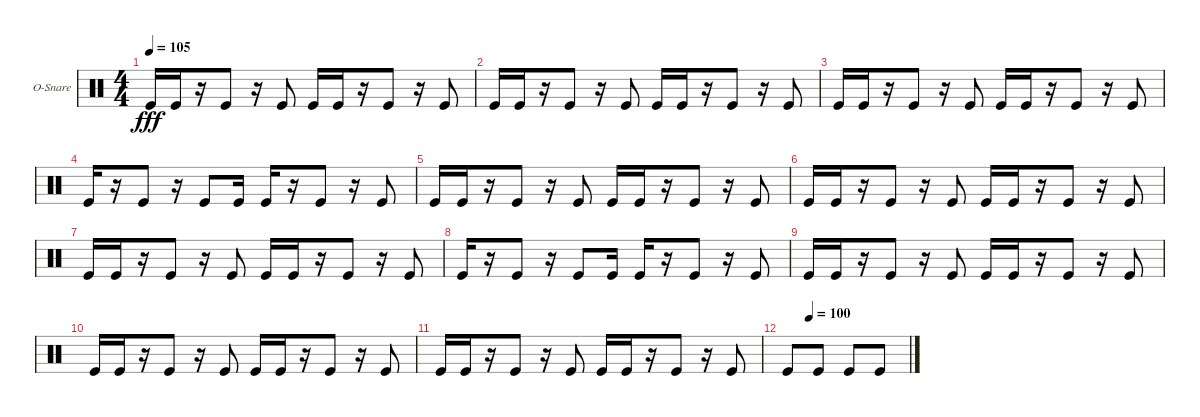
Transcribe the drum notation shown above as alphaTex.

\bracketExtendMode groupsimilarinstruments
\firstSystemTrackNameOrientation horizontal
\otherSystemsTrackNameOrientation horizontal
\track ("Snare" "O-Snare") {instrument percussion}
\staff {score}
\articulation defaults
\ts (4 4)
\tempo 105
\clef neutral
\scale
0.333333
\ks c "Kick (hit)".16{dy fff} "Kick (hit)".16
r.16 "Kick (hit)".8 r.16 "Kick (hit)".8 "Kick (hit)".16 "Kick (hit)".16 r.16 "Kick (hit)".8 r.16 "Kick (hit)".8 |
\scale
0.333333 "Kick (hit)".16 "Kick (hit)".16 r.16 "Kick (hit)".8 r.16 "Kick (hit)".8 "Kick (hit)".16 "Kick (hit)".16 r.16 "Kick (hit)".8 r.16 "Kick (hit)".8 |
\scale
0.333333 "Kick (hit)".16 "Kick (hit)".16 r.16 "Kick (hit)".8 r.16 "Kick (hit)".8 "Kick (hit)".16 "Kick (hit)".16 r.16 "Kick (hit)".8 r.16 "Kick (hit)".8 |
\scale
0.333333 "Kick (hit)".16 r.16 "Kick (hit)".8 r.16 "Kick (hit)".8 "Kick (hit)".16 "Kick (hit)".16 r.16 "Kick (hit)".8 r.16 "Kick (hit)".8 |
\scale
0.333333 "Kick (hit)".16 "Kick (hit)".16 r.16 "Kick (hit)".8 r.16 "Kick (hit)".8 "Kick (hit)".16 "Kick (hit)".16 r.16 "Kick (hit)".8 r.16 "Kick (hit)".8 |
\scale
0.333333 "Kick (hit)".16 "Kick (hit)".16 r.16 "Kick (hit)".8 r.16 "Kick (hit)".8 "Kick (hit)".16 "Kick (hit)".16 r.16 "Kick (hit)".8 r.16 "Kick (hit)".8 |
\scale
0.333333 "Kick (hit)".16 "Kick (hit)".16 r.16 "Kick (hit)".8 r.16 "Kick (hit)".8 "Kick (hit)".16 "Kick (hit)".16 r.16 "Kick (hit)".8 r.16 "Kick (hit)".8 |
\scale
0.333333 "Kick (hit)".16 r.16 "Kick (hit)".8 r.16 "Kick (hit)".8 "Kick (hit)".16 "Kick (hit)".16 r.16 "Kick (hit)".8 r.16 "Kick (hit)".8 |
\scale
0.333333 "Kick (hit)".16 "Kick (hit)".16 r.16 "Kick (hit)".8 r.16 "Kick (hit)".8 "Kick (hit)".16 "Kick (hit)".16 r.16 "Kick (hit)".8 r.16 "Kick (hit)".8 |
\scale
0.333333 "Kick (hit)".16 "Kick (hit)".16 r.16 "Kick (hit)".8 r.16 "Kick (hit)".8 "Kick (hit)".16 "Kick (hit)".16 r.16 "Kick (hit)".8 r.16 "Kick (hit)".8 |
\scale
0.333333 "Kick (hit)".16 "Kick (hit)".16 r.16 "Kick (hit)".8 r.16 "Kick (hit)".8 "Kick (hit)".16 "Kick (hit)".16 r.16 "Kick (hit)".8 r.16 "Kick (hit)".8 |
\tempo (100 0.1875)
\scale
0.333333 "Kick (hit)".8 "Kick (hit)".8 "Kick (hit)".8 "Kick (hit)".8 |
\scale
0.333333 |
\scale
0.333333 |
\scale
0.333333 |
\scale
0.333333
